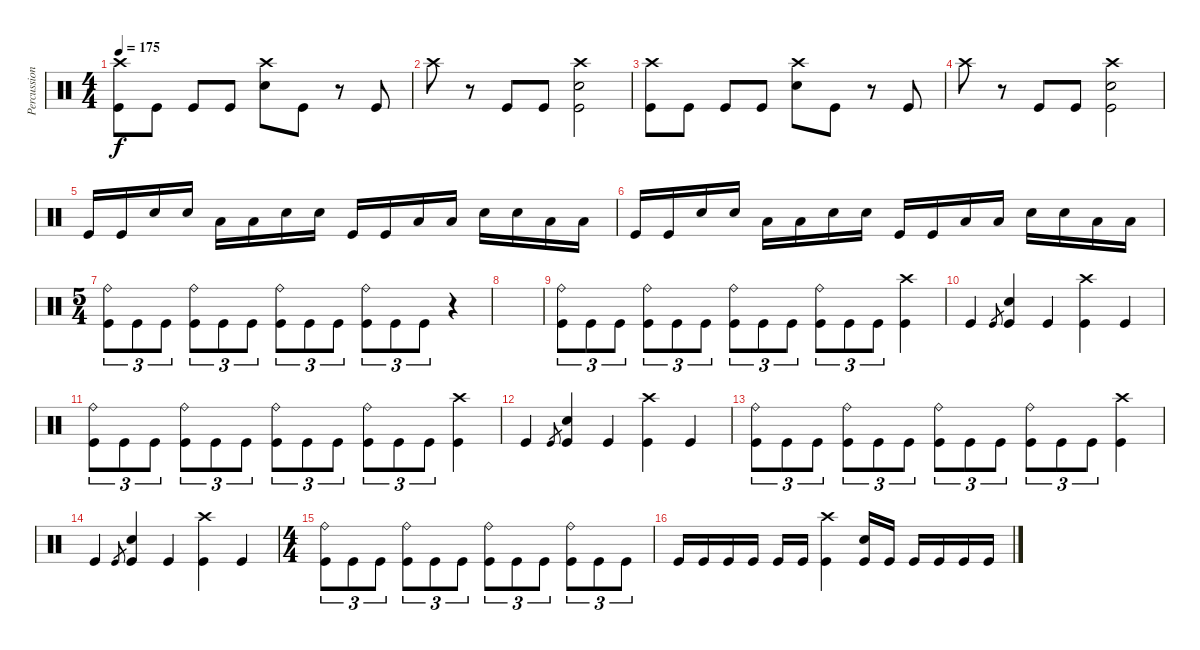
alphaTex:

\track ("Percussion" "Percussion") {instrument percussion}
\staff {score}
\articulation defaults
\ts (4 4)
\tempo 175
\clef neutral
\ks c
("Crash high (hit)" "Kick (hit)").8{dy f} "Kick (hit)".8 "Kick (hit)".8 "Kick (hit)".8 ("Crash high (hit)" "Electric Snare (hit)").8 "Kick (hit)".8 r.8 "Kick (hit)".8 |
"Crash high (hit)".8 r.8 "Kick (hit)".8 "Kick (hit)".8 ("Crash high (hit)" "Electric Snare (hit)" "Kick (hit)").2 |
("Crash high (hit)" "Kick (hit)").8 "Kick (hit)".8 "Kick (hit)".8 "Kick (hit)".8 ("Crash high (hit)" "Electric Snare (hit)").8 "Kick (hit)".8 r.8 "Kick (hit)".8 |
"Crash high (hit)".8 r.8 "Kick (hit)".8 "Kick (hit)".8 ("Crash high (hit)" "Electric Snare (hit)" "Kick (hit)").2 |
"Kick (hit)".16 "Kick (hit)".16 "Electric Snare (hit)".16 "Electric Snare (hit)".16 "Low Tom (hit)".16 "Low Tom (hit)".16 "Electric Snare (hit)".16 "Electric Snare (hit)".16 "Kick (hit)".16 "Kick (hit)".16 "Low Tom (hit)".16 "Low Tom (hit)".16 "Electric Snare (hit)".16 "Electric Snare (hit)".16 "Low Tom (hit)".16 "Low Tom (hit)".16 |
"Kick (hit)".16 "Kick (hit)".16 "Electric Snare (hit)".16 "Electric Snare (hit)".16 "Low Tom (hit)".16 "Low Tom (hit)".16 "Electric Snare (hit)".16 "Electric Snare (hit)".16 "Kick (hit)".16 "Kick (hit)".16 "Low Tom (hit)".16 "Low Tom (hit)".16 "Electric Snare (hit)".16 "Electric Snare (hit)".16 "Low Tom (hit)".16 "Low Tom (hit)".16 |
\ts (5 4)
("Ride (bell)" "Kick (hit)").8{tu (3 2)} "Kick (hit)".8{tu (3 2)} "Kick (hit)".8{tu (3 2)} ("Ride (bell)" "Kick (hit)").8{tu (3 2)} "Kick (hit)".8{tu (3 2)} "Kick (hit)".8{tu (3 2)} ("Ride (bell)" "Kick (hit)").8{tu (3 2)} "Kick (hit)".8{tu (3 2)} "Kick (hit)".8{tu (3 2)} ("Ride (bell)" "Kick (hit)").8{tu (3 2)} "Kick (hit)".8{tu (3 2)} "Kick (hit)".8{tu (3 2)} r.4 |
|
("Ride (bell)" "Kick (hit)").8{tu (3 2)} "Kick (hit)".8{tu (3 2)} "Kick (hit)".8{tu (3 2)} ("Ride (bell)" "Kick (hit)").8{tu (3 2)} "Kick (hit)".8{tu (3 2)} "Kick (hit)".8{tu (3 2)} ("Ride (bell)" "Kick (hit)").8{tu (3 2)} "Kick (hit)".8{tu (3 2)} "Kick (hit)".8{tu (3 2)} ("Ride (bell)" "Kick (hit)").8{tu (3 2)} "Kick (hit)".8{tu (3 2)} "Kick (hit)".8{tu (3 2)} ("Crash high (hit)" "Kick (hit)").4 |
"Kick (hit)".4 "Kick (hit)".8{gr} ("Electric Snare (hit)" "Kick (hit)").4 "Kick (hit)".4 ("Crash high (hit)" "Kick (hit)").4 "Kick (hit)".4 |
("Ride (bell)" "Kick (hit)").8{tu (3 2)} "Kick (hit)".8{tu (3 2)} "Kick (hit)".8{tu (3 2)} ("Ride (bell)" "Kick (hit)").8{tu (3 2)} "Kick (hit)".8{tu (3 2)} "Kick (hit)".8{tu (3 2)} ("Ride (bell)" "Kick (hit)").8{tu (3 2)} "Kick (hit)".8{tu (3 2)} "Kick (hit)".8{tu (3 2)} ("Ride (bell)" "Kick (hit)").8{tu (3 2)} "Kick (hit)".8{tu (3 2)} "Kick (hit)".8{tu (3 2)} ("Crash high (hit)" "Kick (hit)").4 |
"Kick (hit)".4 "Kick (hit)".8{gr} ("Electric Snare (hit)" "Kick (hit)").4 "Kick (hit)".4 ("Crash high (hit)" "Kick (hit)").4 "Kick (hit)".4 |
("Ride (bell)" "Kick (hit)").8{tu (3 2)} "Kick (hit)".8{tu (3 2)} "Kick (hit)".8{tu (3 2)} ("Ride (bell)" "Kick (hit)").8{tu (3 2)} "Kick (hit)".8{tu (3 2)} "Kick (hit)".8{tu (3 2)} ("Ride (bell)" "Kick (hit)").8{tu (3 2)} "Kick (hit)".8{tu (3 2)} "Kick (hit)".8{tu (3 2)} ("Ride (bell)" "Kick (hit)").8{tu (3 2)} "Kick (hit)".8{tu (3 2)} "Kick (hit)".8{tu (3 2)} ("Crash high (hit)" "Kick (hit)").4 |
"Kick (hit)".4 "Kick (hit)".8{gr} ("Electric Snare (hit)" "Kick (hit)").4 "Kick (hit)".4 ("Crash high (hit)" "Kick (hit)").4 "Kick (hit)".4 |
\ts (4 4)
("Ride (bell)" "Kick (hit)").8{tu (3 2)} "Kick (hit)".8{tu (3 2)} "Kick (hit)".8{tu (3 2)} ("Ride (bell)" "Kick (hit)").8{tu (3 2)} "Kick (hit)".8{tu (3 2)} "Kick (hit)".8{tu (3 2)} ("Ride (bell)" "Kick (hit)").8{tu (3 2)} "Kick (hit)".8{tu (3 2)} "Kick (hit)".8{tu (3 2)} ("Ride (bell)" "Kick (hit)").8{tu (3 2)} "Kick (hit)".8{tu (3 2)} "Kick (hit)".8{tu (3 2)} |
"Kick (hit)".16 "Kick (hit)".16 "Kick (hit)".16 "Kick (hit)".16 "Kick (hit)".16 "Kick (hit)".16 ("Crash high (hit)" "Kick (hit)").4 ("Electric Snare (hit)" "Kick (hit)").16 "Kick (hit)".16 "Kick (hit)".16 "Kick (hit)".16 "Kick (hit)".16 "Kick (hit)".16
